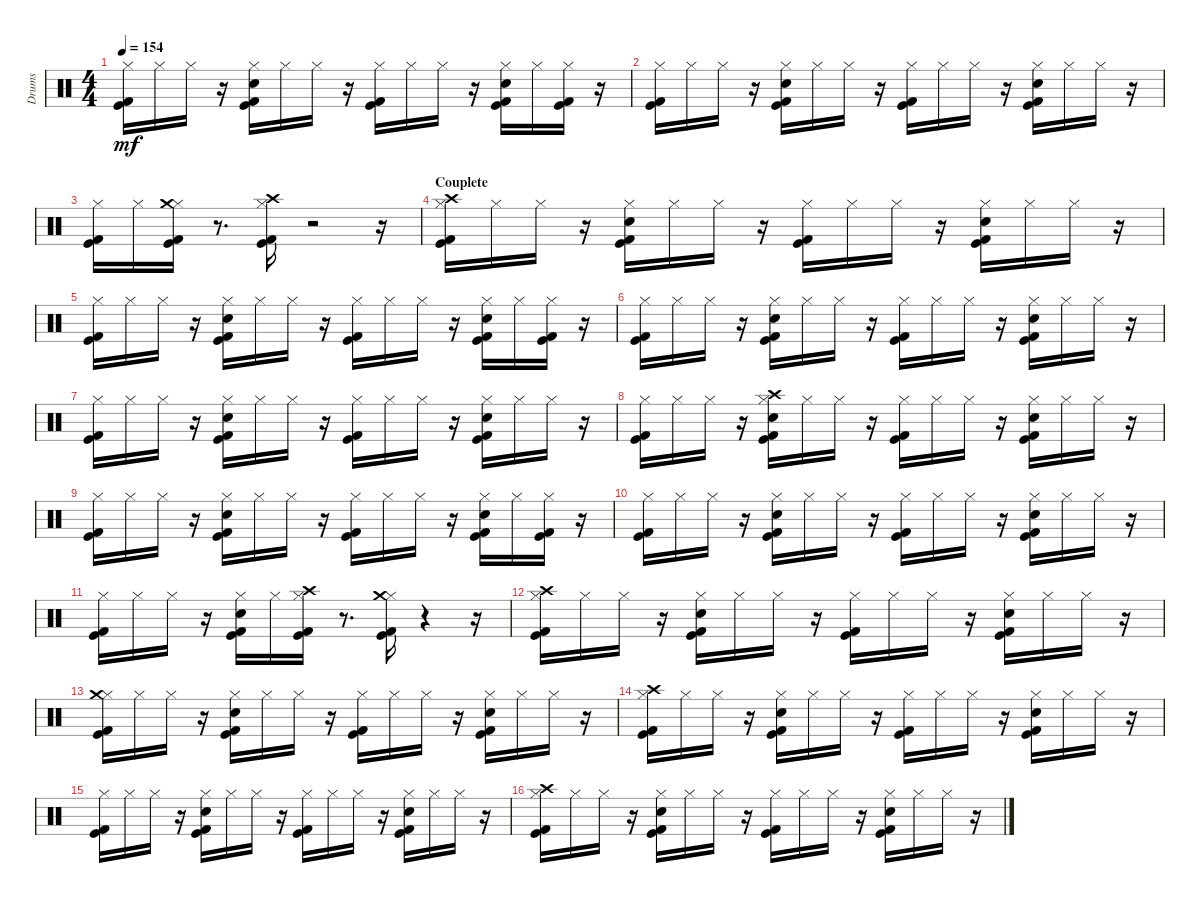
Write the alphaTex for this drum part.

\track ("Drums" "Drums") {instrument percussion}
\staff {score}
\articulation defaults
\ts (4 4)
\tempo 154
\clef neutral
\ks c
("Kick (hit)" "Kick (hit) 2" "Hi-Hat (closed)").16{dy mf} "Hi-Hat (closed)".16 "Hi-Hat (closed)".16 r.16 ("Kick (hit)" "Kick (hit) 2" "Electric Snare (hit)" "Hi-Hat (closed)").16 "Hi-Hat (closed)".16 "Hi-Hat (closed)".16 r.16 ("Kick (hit)" "Kick (hit) 2" "Hi-Hat (closed)").16 "Hi-Hat (closed)".16 "Hi-Hat (closed)".16 r.16 ("Kick (hit)" "Kick (hit) 2" "Electric Snare (hit)" "Hi-Hat (closed)").16 "Hi-Hat (closed)".16 ("Kick (hit)" "Kick (hit) 2" "Hi-Hat (closed)").16 r.16 |
("Kick (hit)" "Kick (hit) 2" "Hi-Hat (closed)").16 "Hi-Hat (closed)".16 "Hi-Hat (closed)".16 r.16 ("Kick (hit)" "Kick (hit) 2" "Electric Snare (hit)" "Hi-Hat (closed)").16 "Hi-Hat (closed)".16 "Hi-Hat (closed)".16 r.16 ("Kick (hit)" "Kick (hit) 2" "Hi-Hat (closed)").16 "Hi-Hat (closed)".16 "Hi-Hat (closed)".16 r.16 ("Kick (hit)" "Kick (hit) 2" "Electric Snare (hit)" "Hi-Hat (closed)").16 "Hi-Hat (closed)".16 "Hi-Hat (closed)".16 r.16 |
("Kick (hit)" "Kick (hit) 2" "Hi-Hat (closed)").16 "Hi-Hat (closed)".16 ("Kick (hit)" "Kick (hit) 2" "Hi-Hat (closed)" "Crash medium (hit)").16 r.8{d} ("Kick (hit)" "Kick (hit) 2" "Hi-Hat (closed)" "Crash high (hit)").16 r.2 r.16 |
\section ("" "Couplete")
("Kick (hit)" "Kick (hit) 2" "Hi-Hat (closed)" "Crash high (hit)").16 "Hi-Hat (closed)".16 "Hi-Hat (closed)".16 r.16 ("Kick (hit)" "Kick (hit) 2" "Electric Snare (hit)" "Hi-Hat (closed)").16 "Hi-Hat (closed)".16 "Hi-Hat (closed)".16 r.16 ("Kick (hit)" "Kick (hit) 2" "Hi-Hat (closed)").16 "Hi-Hat (closed)".16 "Hi-Hat (closed)".16 r.16 ("Kick (hit)" "Kick (hit) 2" "Electric Snare (hit)" "Hi-Hat (closed)").16 "Hi-Hat (closed)".16 "Hi-Hat (closed)".16 r.16 |
("Kick (hit)" "Kick (hit) 2" "Hi-Hat (closed)").16 "Hi-Hat (closed)".16 "Hi-Hat (closed)".16 r.16 ("Kick (hit)" "Kick (hit) 2" "Electric Snare (hit)" "Hi-Hat (closed)").16 "Hi-Hat (closed)".16 "Hi-Hat (closed)".16 r.16 ("Kick (hit)" "Kick (hit) 2" "Hi-Hat (closed)").16 "Hi-Hat (closed)".16 "Hi-Hat (closed)".16 r.16 ("Kick (hit)" "Kick (hit) 2" "Electric Snare (hit)" "Hi-Hat (closed)").16 "Hi-Hat (closed)".16 ("Kick (hit)" "Kick (hit) 2" "Hi-Hat (closed)").16 r.16 |
("Kick (hit)" "Kick (hit) 2" "Hi-Hat (closed)").16 "Hi-Hat (closed)".16 "Hi-Hat (closed)".16 r.16 ("Kick (hit)" "Kick (hit) 2" "Electric Snare (hit)" "Hi-Hat (closed)").16 "Hi-Hat (closed)".16 "Hi-Hat (closed)".16 r.16 ("Kick (hit)" "Kick (hit) 2" "Hi-Hat (closed)").16 "Hi-Hat (closed)".16 "Hi-Hat (closed)".16 r.16 ("Kick (hit)" "Kick (hit) 2" "Electric Snare (hit)" "Hi-Hat (closed)").16 "Hi-Hat (closed)".16 "Hi-Hat (closed)".16 r.16 |
("Kick (hit)" "Kick (hit) 2" "Hi-Hat (closed)").16 "Hi-Hat (closed)".16 "Hi-Hat (closed)".16 r.16 ("Kick (hit)" "Kick (hit) 2" "Electric Snare (hit)" "Hi-Hat (closed)").16 "Hi-Hat (closed)".16 "Hi-Hat (closed)".16 r.16 ("Kick (hit)" "Kick (hit) 2" "Hi-Hat (closed)").16 "Hi-Hat (closed)".16 "Hi-Hat (closed)".16 r.16 ("Kick (hit)" "Kick (hit) 2" "Electric Snare (hit)" "Hi-Hat (closed)").16 "Hi-Hat (closed)".16 "Hi-Hat (closed)".16 r.16 |
("Kick (hit)" "Kick (hit) 2" "Hi-Hat (closed)").16 "Hi-Hat (closed)".16 "Hi-Hat (closed)".16 r.16 ("Kick (hit)" "Kick (hit) 2" "Electric Snare (hit)" "Hi-Hat (closed)" "Crash high (hit)").16 "Hi-Hat (closed)".16 "Hi-Hat (closed)".16 r.16 ("Kick (hit)" "Kick (hit) 2" "Hi-Hat (closed)").16 "Hi-Hat (closed)".16 "Hi-Hat (closed)".16 r.16 ("Kick (hit)" "Kick (hit) 2" "Electric Snare (hit)" "Hi-Hat (closed)").16 "Hi-Hat (closed)".16 "Hi-Hat (closed)".16 r.16 |
("Kick (hit)" "Kick (hit) 2" "Hi-Hat (closed)").16 "Hi-Hat (closed)".16 "Hi-Hat (closed)".16 r.16 ("Kick (hit)" "Kick (hit) 2" "Electric Snare (hit)" "Hi-Hat (closed)").16 "Hi-Hat (closed)".16 "Hi-Hat (closed)".16 r.16 ("Kick (hit)" "Kick (hit) 2" "Hi-Hat (closed)").16 "Hi-Hat (closed)".16 "Hi-Hat (closed)".16 r.16 ("Kick (hit)" "Kick (hit) 2" "Electric Snare (hit)" "Hi-Hat (closed)").16 "Hi-Hat (closed)".16 ("Kick (hit)" "Kick (hit) 2" "Hi-Hat (closed)").16 r.16 |
("Kick (hit)" "Kick (hit) 2" "Hi-Hat (closed)").16 "Hi-Hat (closed)".16 "Hi-Hat (closed)".16 r.16 ("Kick (hit)" "Kick (hit) 2" "Electric Snare (hit)" "Hi-Hat (closed)").16 "Hi-Hat (closed)".16 "Hi-Hat (closed)".16 r.16 ("Kick (hit)" "Kick (hit) 2" "Hi-Hat (closed)").16 "Hi-Hat (closed)".16 "Hi-Hat (closed)".16 r.16 ("Kick (hit)" "Kick (hit) 2" "Electric Snare (hit)" "Hi-Hat (closed)").16 "Hi-Hat (closed)".16 "Hi-Hat (closed)".16 r.16 |
("Kick (hit)" "Kick (hit) 2" "Hi-Hat (closed)").16 "Hi-Hat (closed)".16 "Hi-Hat (closed)".16 r.16 ("Kick (hit)" "Kick (hit) 2" "Electric Snare (hit)" "Hi-Hat (closed)").16 "Hi-Hat (closed)".16 ("Kick (hit)" "Kick (hit) 2" "Hi-Hat (closed)" "Crash high (hit)").16 r.8{d} ("Kick (hit)" "Kick (hit) 2" "Hi-Hat (closed)" "Crash medium (hit)").16 r.4 r.16 |
("Kick (hit)" "Kick (hit) 2" "Hi-Hat (closed)" "Crash high (hit)").16 "Hi-Hat (closed)".16 "Hi-Hat (closed)".16 r.16 ("Kick (hit)" "Kick (hit) 2" "Electric Snare (hit)" "Hi-Hat (closed)").16 "Hi-Hat (closed)".16 "Hi-Hat (closed)".16 r.16 ("Kick (hit)" "Kick (hit) 2" "Hi-Hat (closed)").16 "Hi-Hat (closed)".16 "Hi-Hat (closed)".16 r.16 ("Kick (hit)" "Kick (hit) 2" "Electric Snare (hit)" "Hi-Hat (closed)").16 "Hi-Hat (closed)".16 "Hi-Hat (closed)".16 r.16 |
("Kick (hit)" "Kick (hit) 2" "Hi-Hat (closed)" "Crash medium (hit)").16 "Hi-Hat (closed)".16 "Hi-Hat (closed)".16 r.16 ("Kick (hit)" "Kick (hit) 2" "Electric Snare (hit)" "Hi-Hat (closed)").16 "Hi-Hat (closed)".16 "Hi-Hat (closed)".16 r.16 ("Kick (hit)" "Kick (hit) 2" "Hi-Hat (closed)").16 "Hi-Hat (closed)".16 "Hi-Hat (closed)".16 r.16 ("Kick (hit)" "Kick (hit) 2" "Electric Snare (hit)" "Hi-Hat (closed)").16 "Hi-Hat (closed)".16 "Hi-Hat (closed)".16 r.16 |
("Kick (hit)" "Kick (hit) 2" "Hi-Hat (closed)" "Crash high (hit)").16 "Hi-Hat (closed)".16 "Hi-Hat (closed)".16 r.16 ("Kick (hit)" "Kick (hit) 2" "Electric Snare (hit)" "Hi-Hat (closed)").16 "Hi-Hat (closed)".16 "Hi-Hat (closed)".16 r.16 ("Kick (hit)" "Kick (hit) 2" "Hi-Hat (closed)").16 "Hi-Hat (closed)".16 "Hi-Hat (closed)".16 r.16 ("Kick (hit)" "Kick (hit) 2" "Electric Snare (hit)" "Hi-Hat (closed)").16 "Hi-Hat (closed)".16 "Hi-Hat (closed)".16 r.16 |
("Kick (hit)" "Kick (hit) 2" "Hi-Hat (closed)").16 "Hi-Hat (closed)".16 "Hi-Hat (closed)".16 r.16 ("Kick (hit)" "Kick (hit) 2" "Electric Snare (hit)" "Hi-Hat (closed)").16 "Hi-Hat (closed)".16 "Hi-Hat (closed)".16 r.16 ("Kick (hit)" "Kick (hit) 2" "Hi-Hat (closed)").16 "Hi-Hat (closed)".16 "Hi-Hat (closed)".16 r.16 ("Kick (hit)" "Kick (hit) 2" "Electric Snare (hit)" "Hi-Hat (closed)").16 "Hi-Hat (closed)".16 "Hi-Hat (closed)".16 r.16 |
("Kick (hit)" "Kick (hit) 2" "Hi-Hat (closed)" "Crash high (hit)").16 "Hi-Hat (closed)".16 "Hi-Hat (closed)".16 r.16 ("Kick (hit)" "Kick (hit) 2" "Electric Snare (hit)" "Hi-Hat (closed)").16 "Hi-Hat (closed)".16 "Hi-Hat (closed)".16 r.16 ("Kick (hit)" "Kick (hit) 2" "Hi-Hat (closed)").16 "Hi-Hat (closed)".16 "Hi-Hat (closed)".16 r.16 ("Kick (hit)" "Kick (hit) 2" "Electric Snare (hit)" "Hi-Hat (closed)").16 "Hi-Hat (closed)".16 "Hi-Hat (closed)".16 r.16
